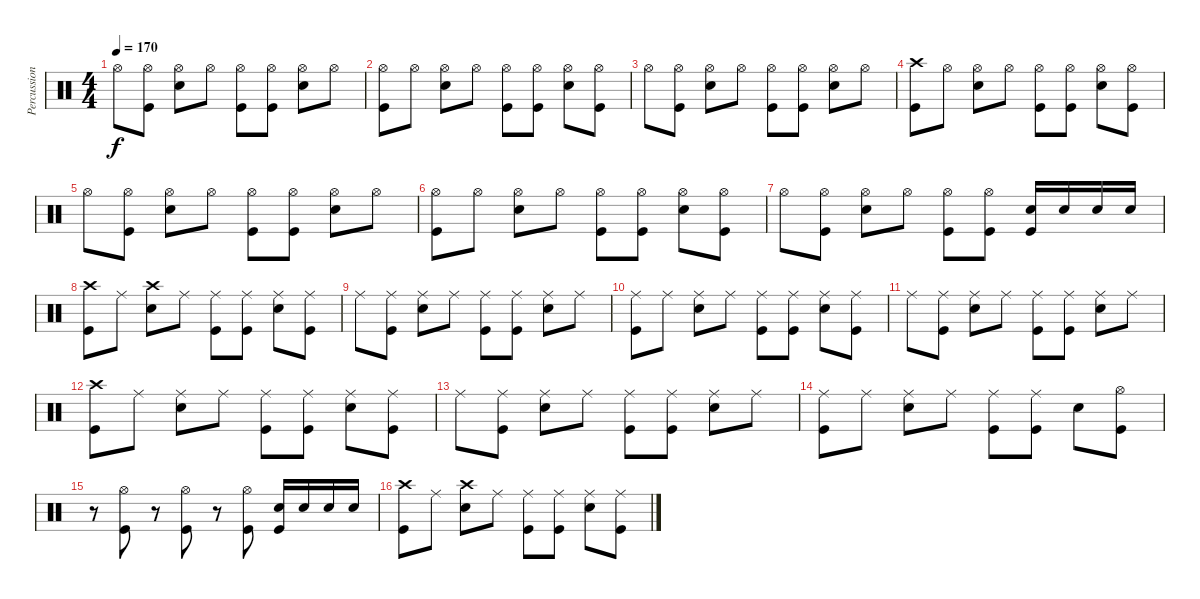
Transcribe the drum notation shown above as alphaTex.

\track ("Percussion" "Percussion") {instrument percussion}
\staff {score}
\articulation defaults
\ts (4 4)
\tempo 170
\clef neutral
\ks c "Hi-Hat (open)".8{dy f}
("Hi-Hat (open)" "Kick (hit)").8 ("Hi-Hat (open)" "Snare (hit) 2").8 "Hi-Hat (open)".8 ("Hi-Hat (open)" "Kick (hit)").8 ("Hi-Hat (open)" "Kick (hit)").8 ("Hi-Hat (open)" "Snare (hit) 2").8 "Hi-Hat (open)".8 |
("Hi-Hat (open)" "Kick (hit)").8 "Hi-Hat (open)".8 ("Hi-Hat (open)" "Snare (hit) 2").8 "Hi-Hat (open)".8 ("Hi-Hat (open)" "Kick (hit)").8 ("Hi-Hat (open)" "Kick (hit)").8 ("Hi-Hat (open)" "Snare (hit) 2").8 ("Hi-Hat (open)" "Kick (hit)").8 |
"Hi-Hat (open)".8 ("Hi-Hat (open)" "Kick (hit)").8 ("Hi-Hat (open)" "Snare (hit) 2").8 "Hi-Hat (open)".8 ("Hi-Hat (open)" "Kick (hit)").8 ("Hi-Hat (open)" "Kick (hit)").8 ("Hi-Hat (open)" "Snare (hit) 2").8 "Hi-Hat (open)".8 |
("Crash high (hit)" "Kick (hit)").8 "Hi-Hat (open)".8 ("Hi-Hat (open)" "Snare (hit) 2").8 "Hi-Hat (open)".8 ("Hi-Hat (open)" "Kick (hit)").8 ("Hi-Hat (open)" "Kick (hit)").8 ("Hi-Hat (open)" "Snare (hit) 2").8 ("Hi-Hat (open)" "Kick (hit)").8 |
"Hi-Hat (open)".8 ("Hi-Hat (open)" "Kick (hit)").8 ("Hi-Hat (open)" "Snare (hit) 2").8 "Hi-Hat (open)".8 ("Hi-Hat (open)" "Kick (hit)").8 ("Hi-Hat (open)" "Kick (hit)").8 ("Hi-Hat (open)" "Snare (hit) 2").8 "Hi-Hat (open)".8 |
("Hi-Hat (open)" "Kick (hit)").8 "Hi-Hat (open)".8 ("Hi-Hat (open)" "Snare (hit) 2").8 "Hi-Hat (open)".8 ("Hi-Hat (open)" "Kick (hit)").8 ("Hi-Hat (open)" "Kick (hit)").8 ("Hi-Hat (open)" "Snare (hit) 2").8 ("Hi-Hat (open)" "Kick (hit)").8 |
"Hi-Hat (open)".8 ("Hi-Hat (open)" "Kick (hit)").8 ("Hi-Hat (open)" "Snare (hit) 2").8 "Hi-Hat (open)".8 ("Hi-Hat (open)" "Kick (hit)").8 ("Hi-Hat (open)" "Kick (hit)").8 ("Snare (hit) 2" "Kick (hit)").16 "Snare (hit) 2".16 "Snare (hit) 2".16 "Snare (hit) 2".16 |
("Crash high (hit)" "Kick (hit)").8 "Ride (middle)".8 ("Crash high (hit)" "Snare (hit) 2").8 "Ride (middle)".8 ("Ride (middle)" "Kick (hit)").8 ("Ride (middle)" "Kick (hit)").8 ("Ride (middle)" "Snare (hit) 2").8 ("Ride (middle)" "Kick (hit)").8 |
"Ride (middle)".8 ("Ride (middle)" "Kick (hit)").8 ("Ride (middle)" "Snare (hit) 2").8 "Ride (middle)".8 ("Ride (middle)" "Kick (hit)").8 ("Ride (middle)" "Kick (hit)").8 ("Ride (middle)" "Snare (hit) 2").8 "Ride (middle)".8 |
("Ride (middle)" "Kick (hit)").8 "Ride (middle)".8 ("Ride (middle)" "Snare (hit) 2").8 "Ride (middle)".8 ("Ride (middle)" "Kick (hit)").8 ("Ride (middle)" "Kick (hit)").8 ("Ride (middle)" "Snare (hit) 2").8 ("Ride (middle)" "Kick (hit)").8 |
"Ride (middle)".8 ("Ride (middle)" "Kick (hit)").8 ("Ride (middle)" "Snare (hit) 2").8 "Ride (middle)".8 ("Ride (middle)" "Kick (hit)").8 ("Ride (middle)" "Kick (hit)").8 ("Ride (middle)" "Snare (hit) 2").8 "Ride (middle)".8 |
("Crash high (hit)" "Kick (hit)").8 "Ride (middle)".8 ("Ride (middle)" "Snare (hit) 2").8 "Ride (middle)".8 ("Ride (middle)" "Kick (hit)").8 ("Ride (middle)" "Kick (hit)").8 ("Ride (middle)" "Snare (hit) 2").8 ("Ride (middle)" "Kick (hit)").8 |
"Ride (middle)".8 ("Ride (middle)" "Kick (hit)").8 ("Ride (middle)" "Snare (hit) 2").8 "Ride (middle)".8 ("Ride (middle)" "Kick (hit)").8 ("Ride (middle)" "Kick (hit)").8 ("Ride (middle)" "Snare (hit) 2").8 "Ride (middle)".8 |
("Ride (middle)" "Kick (hit)").8 "Ride (middle)".8 ("Ride (middle)" "Snare (hit) 2").8 "Ride (middle)".8 ("Ride (middle)" "Kick (hit)").8 ("Ride (middle)" "Kick (hit)").8 "Snare (hit) 2".8 ("Hi-Hat (open)" "Kick (hit)").8 |
r.8 ("Hi-Hat (open)" "Kick (hit)").8 r.8 ("Hi-Hat (open)" "Kick (hit)").8 r.8 ("Hi-Hat (open)" "Kick (hit)").8 ("Snare (hit) 2" "Kick (hit)").16 "Snare (hit) 2".16 "Snare (hit) 2".16 "Snare (hit) 2".16 |
("Crash high (hit)" "Kick (hit)").8 "Ride (middle)".8 ("Crash high (hit)" "Snare (hit) 2").8 "Ride (middle)".8 ("Ride (middle)" "Kick (hit)").8 ("Ride (middle)" "Kick (hit)").8 ("Ride (middle)" "Snare (hit) 2").8 ("Ride (middle)" "Kick (hit)").8
